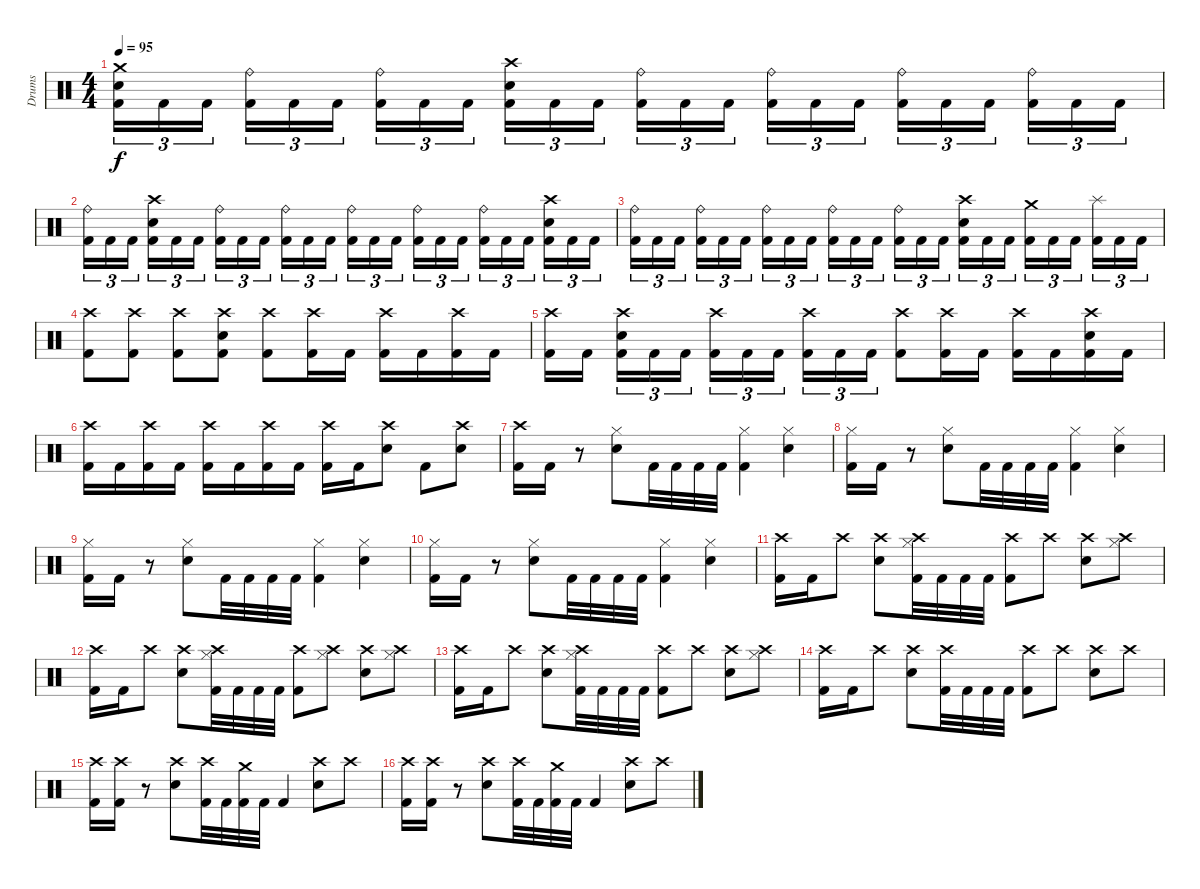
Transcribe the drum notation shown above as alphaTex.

\track ("Drums" "Drums") {instrument percussion}
\staff {score}
\articulation defaults
\ts (4 4)
\tempo 95
\clef neutral
\ks c
("Crash medium (hit)" "Snare (hit) 2" "Kick (hit) 2").16{tu (3 2) dy f} "Kick (hit) 2".16{tu (3 2)} "Kick (hit) 2".16{tu (3 2)} ("Ride (bell)" "Kick (hit) 2").16{tu (3 2)} "Kick (hit) 2".16{tu (3 2)} "Kick (hit) 2".16{tu (3 2)} ("Ride (bell)" "Kick (hit) 2").16{tu (3 2)} "Kick (hit) 2".16{tu (3 2)} "Kick (hit) 2".16{tu (3 2)} ("Crash high (hit)" "Snare (hit) 2" "Kick (hit) 2").16{tu (3 2)} "Kick (hit) 2".16{tu (3 2)} "Kick (hit) 2".16{tu (3 2)} ("Ride (bell)" "Kick (hit) 2").16{tu (3 2)} "Kick (hit) 2".16{tu (3 2)} "Kick (hit) 2".16{tu (3 2)} ("Ride (bell)" "Kick (hit) 2").16{tu (3 2)} "Kick (hit) 2".16{tu (3 2)} "Kick (hit) 2".16{tu (3 2)} ("Ride (bell)" "Kick (hit) 2").16{tu (3 2)} "Kick (hit) 2".16{tu (3 2)} "Kick (hit) 2".16{tu (3 2)} ("Ride (bell)" "Kick (hit) 2").16{tu (3 2)} "Kick (hit) 2".16{tu (3 2)} "Kick (hit) 2".16{tu (3 2)} |
("Ride (bell)" "Kick (hit) 2").16{tu (3 2)} "Kick (hit) 2".16{tu (3 2)} "Kick (hit) 2".16{tu (3 2)} ("Crash high (hit)" "Snare (hit) 2" "Kick (hit) 2").16{tu (3 2)} "Kick (hit) 2".16{tu (3 2)} "Kick (hit) 2".16{tu (3 2)} ("Ride (bell)" "Kick (hit) 2").16{tu (3 2)} "Kick (hit) 2".16{tu (3 2)} "Kick (hit) 2".16{tu (3 2)} ("Ride (bell)" "Kick (hit) 2").16{tu (3 2)} "Kick (hit) 2".16{tu (3 2)} "Kick (hit) 2".16{tu (3 2)} ("Ride (bell)" "Kick (hit) 2").16{tu (3 2)} "Kick (hit) 2".16{tu (3 2)} "Kick (hit) 2".16{tu (3 2)} ("Ride (bell)" "Kick (hit) 2").16{tu (3 2)} "Kick (hit) 2".16{tu (3 2)} "Kick (hit) 2".16{tu (3 2)} ("Ride (bell)" "Kick (hit) 2").16{tu (3 2)} "Kick (hit) 2".16{tu (3 2)} "Kick (hit) 2".16{tu (3 2)} ("Crash high (hit)" "Snare (hit) 2" "Kick (hit) 2").16{tu (3 2)} "Kick (hit) 2".16{tu (3 2)} "Kick (hit) 2".16{tu (3 2)} |
("Ride (bell)" "Kick (hit) 2").16{tu (3 2)} "Kick (hit) 2".16{tu (3 2)} "Kick (hit) 2".16{tu (3 2)} ("Ride (bell)" "Kick (hit) 2").16{tu (3 2)} "Kick (hit) 2".16{tu (3 2)} "Kick (hit) 2".16{tu (3 2)} ("Ride (bell)" "Kick (hit) 2").16{tu (3 2)} "Kick (hit) 2".16{tu (3 2)} "Kick (hit) 2".16{tu (3 2)} ("Ride (bell)" "Kick (hit) 2").16{tu (3 2)} "Kick (hit) 2".16{tu (3 2)} "Kick (hit) 2".16{tu (3 2)} ("Ride (bell)" "Kick (hit) 2").16{tu (3 2)} "Kick (hit) 2".16{tu (3 2)} "Kick (hit) 2".16{tu (3 2)} ("Crash high (hit)" "Snare (hit) 2" "Kick (hit) 2").16{tu (3 2)} "Kick (hit) 2".16{tu (3 2)} "Kick (hit) 2".16{tu (3 2)} ("Crash medium (hit)" "Kick (hit) 2").16{tu (3 2)} "Kick (hit) 2".16{tu (3 2)} "Kick (hit) 2".16{tu (3 2)} ("Splash (hit)" "Kick (hit) 2").16{tu (3 2)} "Kick (hit) 2".16{tu (3 2)} "Kick (hit) 2".16{tu (3 2)} |
("Crash high (hit)" "Kick (hit) 2").8 ("Crash high (hit)" "Kick (hit) 2").8 ("Crash high (hit)" "Kick (hit) 2").8 ("Crash high (hit)" "Snare (hit) 2" "Kick (hit) 2").8 ("Crash high (hit)" "Kick (hit) 2").8 ("Crash high (hit)" "Kick (hit) 2").16 "Kick (hit) 2".16 ("Crash high (hit)" "Kick (hit) 2").16 "Kick (hit) 2".16 ("Crash high (hit)" "Kick (hit) 2").16 "Kick (hit) 2".16 |
("Crash high (hit)" "Kick (hit) 2").16 "Kick (hit) 2".16 ("Crash high (hit)" "Snare (hit) 2" "Kick (hit) 2").16{tu (3 2)} "Kick (hit) 2".16{tu (3 2)} "Kick (hit) 2".16{tu (3 2)} ("Crash high (hit)" "Kick (hit) 2").16{tu (3 2)} "Kick (hit) 2".16{tu (3 2)} "Kick (hit) 2".16{tu (3 2)} ("Crash high (hit)" "Kick (hit) 2").16{tu (3 2)} "Kick (hit) 2".16{tu (3 2)} "Kick (hit) 2".16{tu (3 2)} ("Crash high (hit)" "Kick (hit) 2").8 ("Crash high (hit)" "Kick (hit) 2").16 "Kick (hit) 2".16 ("Crash high (hit)" "Kick (hit) 2").16 "Kick (hit) 2".16 ("Crash high (hit)" "Snare (hit) 2" "Kick (hit) 2").16 "Kick (hit) 2".16 |
("Crash high (hit)" "Kick (hit) 2").16 "Kick (hit) 2".16 ("Crash high (hit)" "Kick (hit) 2").16 "Kick (hit) 2".16 ("Crash high (hit)" "Kick (hit) 2").16 "Kick (hit) 2".16 ("Crash high (hit)" "Kick (hit) 2").16 "Kick (hit) 2".16 ("Crash high (hit)" "Kick (hit) 2").16 "Kick (hit) 2".16 ("Crash high (hit)" "Snare (hit) 2").8 "Kick (hit) 2".8 ("Crash high (hit)" "Snare (hit) 2").8 |
("Crash high (hit)" "Kick (hit) 2").16 "Kick (hit) 2".16 r.8 ("Hi-Hat (closed)" "Snare (hit) 2").8 "Kick (hit) 2".32 "Kick (hit) 2".32 "Kick (hit) 2".32 "Kick (hit) 2".32 ("Hi-Hat (closed)" "Kick (hit) 2").4 ("Hi-Hat (closed)" "Snare (hit) 2").4 |
("Hi-Hat (closed)" "Kick (hit) 2").16 "Kick (hit) 2".16 r.8 ("Hi-Hat (closed)" "Snare (hit) 2").8 "Kick (hit) 2".32 "Kick (hit) 2".32 "Kick (hit) 2".32 "Kick (hit) 2".32 ("Hi-Hat (closed)" "Kick (hit) 2").4 ("Hi-Hat (closed)" "Snare (hit) 2").4 |
("Hi-Hat (closed)" "Kick (hit) 2").16 "Kick (hit) 2".16 r.8 ("Hi-Hat (closed)" "Snare (hit) 2").8 "Kick (hit) 2".32 "Kick (hit) 2".32 "Kick (hit) 2".32 "Kick (hit) 2".32 ("Hi-Hat (closed)" "Kick (hit) 2").4 ("Hi-Hat (closed)" "Snare (hit) 2").4 |
("Hi-Hat (closed)" "Kick (hit) 2").16 "Kick (hit) 2".16 r.8 ("Hi-Hat (closed)" "Snare (hit) 2").8 "Kick (hit) 2".32 "Kick (hit) 2".32 "Kick (hit) 2".32 "Kick (hit) 2".32 ("Hi-Hat (closed)" "Kick (hit) 2").4 ("Hi-Hat (closed)" "Snare (hit) 2").4 |
("Crash high (hit)" "Kick (hit) 2").16 "Kick (hit) 2".16 "Crash high (hit)".8 ("Crash high (hit)" "Snare (hit) 2").8 ("Crash high (hit)" "Hi-Hat (closed)" "Kick (hit) 2").32 "Kick (hit) 2".32 "Kick (hit) 2".32 "Kick (hit) 2".32 ("Crash high (hit)" "Kick (hit) 2").8 "Crash high (hit)".8 ("Crash high (hit)" "Snare (hit) 2").8 ("Crash high (hit)" "Hi-Hat (closed)").8 |
("Crash high (hit)" "Kick (hit) 2").16 "Kick (hit) 2".16 "Crash high (hit)".8 ("Crash high (hit)" "Snare (hit) 2").8 ("Crash high (hit)" "Hi-Hat (closed)" "Kick (hit) 2").32 "Kick (hit) 2".32 "Kick (hit) 2".32 "Kick (hit) 2".32 ("Crash high (hit)" "Kick (hit) 2").8 ("Crash high (hit)" "Hi-Hat (closed)").8 ("Crash high (hit)" "Snare (hit) 2").8 ("Crash high (hit)" "Hi-Hat (closed)").8 |
("Crash high (hit)" "Kick (hit) 2").16 "Kick (hit) 2".16 "Crash high (hit)".8 ("Crash high (hit)" "Snare (hit) 2").8 ("Crash high (hit)" "Hi-Hat (closed)" "Kick (hit) 2").32 "Kick (hit) 2".32 "Kick (hit) 2".32 "Kick (hit) 2".32 ("Crash high (hit)" "Kick (hit) 2").8 "Crash high (hit)".8 ("Crash high (hit)" "Snare (hit) 2").8 ("Crash high (hit)" "Hi-Hat (closed)").8 |
("Crash high (hit)" "Kick (hit) 2").16 "Kick (hit) 2".16 "Crash high (hit)".8 ("Crash high (hit)" "Snare (hit) 2").8 ("Crash high (hit)" "Kick (hit) 2").32 "Kick (hit) 2".32 "Kick (hit) 2".32 "Kick (hit) 2".32 ("Crash high (hit)" "Kick (hit) 2").8 "Crash high (hit)".8 ("Crash high (hit)" "Snare (hit) 2").8 "Crash high (hit)".8 |
("Crash high (hit)" "Kick (hit) 2").16 ("Crash high (hit)" "Kick (hit) 2").16 r.8 ("Crash high (hit)" "Snare (hit) 2").8 ("Crash high (hit)" "Kick (hit) 2").32 "Kick (hit) 2".32 ("Crash medium (hit)" "Kick (hit) 2").32 "Kick (hit) 2".32 "Kick (hit) 2".4 ("Crash high (hit)" "Snare (hit) 2").8 "Crash high (hit)".8 |
("Crash high (hit)" "Kick (hit) 2").16 ("Crash high (hit)" "Kick (hit) 2").16 r.8 ("Crash high (hit)" "Snare (hit) 2").8 ("Crash high (hit)" "Kick (hit) 2").32 "Kick (hit) 2".32 ("Crash medium (hit)" "Kick (hit) 2").32 "Kick (hit) 2".32 "Kick (hit) 2".4 ("Crash high (hit)" "Snare (hit) 2").8 "Crash high (hit)".8
